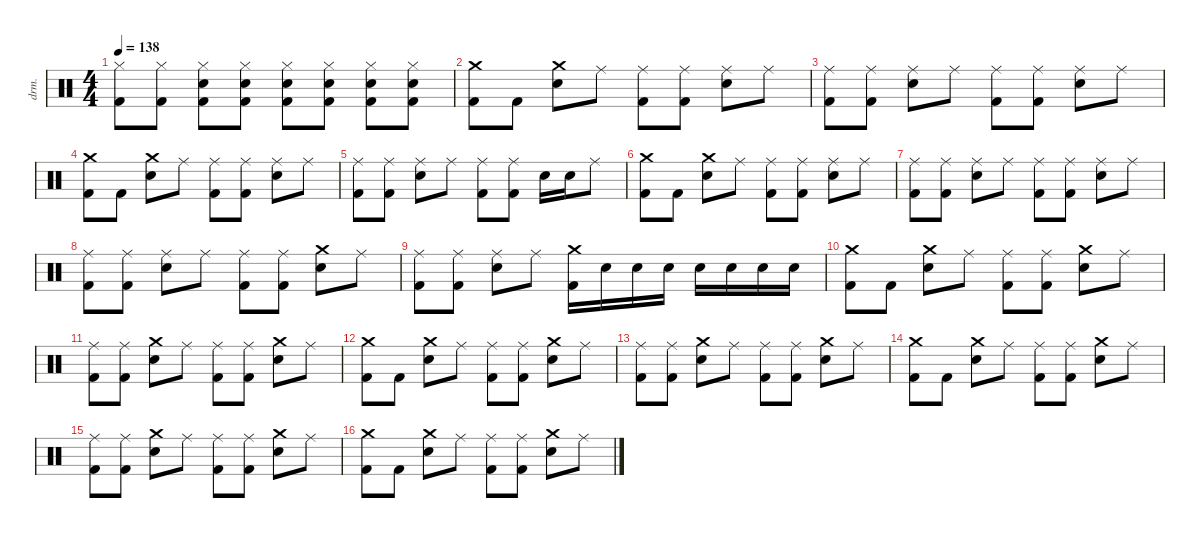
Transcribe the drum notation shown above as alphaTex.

\defaultSystemsLayout 4
\hideDynamics
\bracketExtendMode nobrackets
\otherSystemsTrackNameOrientation horizontal
\track ("Alex Van Halen " "drm.") {instrument percussion}
\staff {score}
\articulation defaults
\ts (4 4)
\tempo 138
\clef neutral
\ks c
("Kick (hit) 2" "Hi-Hat (closed)").8{dy mf beam Down} ("Kick (hit) 2" "Hi-Hat (closed)").8{dy f beam Down} ("Snare (hit) 2" "Kick (hit) 2" "Hi-Hat (closed)").8{beam Down} ("Snare (hit) 2" "Kick (hit) 2" "Hi-Hat (closed)").8{beam Down} ("Snare (hit) 2" "Kick (hit) 2" "Hi-Hat (closed)").8{dy ff beam Down} ("Snare (hit) 2" "Kick (hit) 2" "Hi-Hat (closed)").8{beam Down} ("Snare (hit) 2" "Kick (hit) 2" "Hi-Hat (closed)").8{beam Down} ("Snare (hit) 2" "Kick (hit) 2" "Hi-Hat (closed)").8{dy fff beam Down} |
("Kick (hit) 2" "Crash medium (hit)").8{dy ff beam Down} "Kick (hit) 2".8{dy f beam Down} ("Snare (hit) 2" "Crash medium (hit)").8{dy fff beam Down} "Ride (middle)".8{dy f beam Down} ("Kick (hit) 2" "Ride (middle)").8{dy ff beam Down} ("Kick (hit) 2" "Ride (middle)").8{dy f beam Down} ("Snare (hit) 2" "Ride (middle)").8{dy fff beam Down} "Ride (middle)".8{dy f beam Down} |
("Kick (hit) 2" "Ride (middle)").8{dy ff beam Down} ("Kick (hit) 2" "Ride (middle)").8{dy f beam Down} ("Snare (hit) 2" "Ride (middle)").8{dy fff beam Down} "Ride (middle)".8{dy f beam Down} ("Kick (hit) 2" "Ride (middle)").8{dy ff beam Down} ("Kick (hit) 2" "Ride (middle)").8{dy f beam Down} ("Snare (hit) 2" "Ride (middle)").8{dy fff beam Down} "Ride (middle)".8{dy f beam Down} |
("Kick (hit) 2" "Crash medium (hit)").8{dy ff beam Down} "Kick (hit) 2".8{dy f beam Down} ("Snare (hit) 2" "Crash medium (hit)").8{dy fff beam Down} "Ride (middle)".8{dy f beam Down} ("Kick (hit) 2" "Ride (middle)").8{dy ff beam Down} ("Kick (hit) 2" "Ride (middle)").8{dy f beam Down} ("Snare (hit) 2" "Ride (middle)").8{dy fff beam Down} "Ride (middle)".8{dy f beam Down} |
("Kick (hit) 2" "Ride (middle)").8{dy ff beam Down} ("Kick (hit) 2" "Ride (middle)").8{dy f beam Down} ("Snare (hit) 2" "Ride (middle)").8{dy fff beam Down} "Ride (middle)".8{dy f beam Down} ("Kick (hit) 2" "Ride (middle)").8{dy ff beam Down} ("Kick (hit) 2" "Ride (middle)").8{dy f beam Down} "Snare (hit) 2".16{dy fff beam Down} "Snare (hit) 2".16{dy f beam Down} "Ride (middle)".8{beam Down} |
("Kick (hit) 2" "Crash medium (hit)").8{dy ff beam Down} "Kick (hit) 2".8{dy f beam Down} ("Snare (hit) 2" "Crash medium (hit)").8{dy fff beam Down} "Ride (middle)".8{dy f beam Down} ("Kick (hit) 2" "Ride (middle)").8{dy ff beam Down} ("Kick (hit) 2" "Ride (middle)").8{dy f beam Down} ("Snare (hit) 2" "Ride (middle)").8{dy fff beam Down} "Ride (middle)".8{dy f beam Down} |
("Kick (hit) 2" "Ride (middle)").8{dy ff beam Down} ("Kick (hit) 2" "Ride (middle)").8{dy f beam Down} ("Snare (hit) 2" "Ride (middle)").8{dy fff beam Down} "Ride (middle)".8{dy f beam Down} ("Kick (hit) 2" "Ride (middle)").8{dy ff beam Down} ("Kick (hit) 2" "Ride (middle)").8{dy f beam Down} ("Snare (hit) 2" "Ride (middle)").8{dy fff beam Down} "Ride (middle)".8{dy f beam Down} |
("Kick (hit) 2" "Ride (middle)").8{dy ff beam Down} ("Kick (hit) 2" "Ride (middle)").8{dy f beam Down} ("Snare (hit) 2" "Ride (middle)").8{dy fff beam Down} "Ride (middle)".8{dy f beam Down} ("Kick (hit) 2" "Ride (middle)").8{dy ff beam Down} ("Ride (middle)" "Kick (hit) 2").8{dy f beam Down} ("Crash medium (hit)" "Snare (hit) 2").8{dy fff beam Down} "Ride (middle)".8{dy f beam Down} |
("Kick (hit) 2" "Ride (middle)").8{dy ff beam Down} ("Kick (hit) 2" "Ride (middle)").8{dy f beam Down} ("Snare (hit) 2" "Ride (middle)").8{dy fff beam Down} "Ride (middle)".8{dy f beam Down} ("Kick (hit) 2" "Crash medium (hit)").16{dy ff beam Down} "Snare (hit) 2".16{dy f beam Down} "Snare (hit) 2".16{beam Down} "Snare (hit) 2".16{beam Down} "Snare (hit) 2".16{dy ff beam Down} "Snare (hit) 2".16{beam Down} "Snare (hit) 2".16{beam Down} "Snare (hit) 2".16{dy fff beam Down} |
("Kick (hit) 2" "Crash medium (hit)").8{dy ff beam Down} "Kick (hit) 2".8{dy f beam Down} ("Snare (hit) 2" "Crash medium (hit)").8{dy fff beam Down} "Ride (middle)".8{dy f beam Down} ("Kick (hit) 2" "Ride (middle)").8{dy ff beam Down} ("Kick (hit) 2" "Ride (middle)").8{dy f beam Down} ("Snare (hit) 2" "Crash medium (hit)").8{dy fff beam Down} "Ride (middle)".8{dy f beam Down} |
("Kick (hit) 2" "Ride (middle)").8{dy ff beam Down} ("Kick (hit) 2" "Ride (middle)").8{dy f beam Down} ("Snare (hit) 2" "Crash medium (hit)").8{dy fff beam Down} "Ride (middle)".8{dy f beam Down} ("Kick (hit) 2" "Ride (middle)").8{dy ff beam Down} ("Kick (hit) 2" "Ride (middle)").8{dy f beam Down} ("Snare (hit) 2" "Crash medium (hit)").8{dy fff beam Down} "Ride (middle)".8{dy f beam Down} |
("Kick (hit) 2" "Crash medium (hit)").8{dy ff beam Down} "Kick (hit) 2".8{dy f beam Down} ("Snare (hit) 2" "Crash medium (hit)").8{dy fff beam Down} "Ride (middle)".8{dy f beam Down} ("Kick (hit) 2" "Ride (middle)").8{dy ff beam Down} ("Kick (hit) 2" "Ride (middle)").8{dy f beam Down} ("Snare (hit) 2" "Crash medium (hit)").8{dy fff beam Down} "Ride (middle)".8{dy f beam Down} |
("Kick (hit) 2" "Ride (middle)").8{dy ff beam Down} ("Kick (hit) 2" "Ride (middle)").8{dy f beam Down} ("Snare (hit) 2" "Crash medium (hit)").8{dy fff beam Down} "Ride (middle)".8{dy f beam Down} ("Kick (hit) 2" "Ride (middle)").8{dy ff beam Down} ("Kick (hit) 2" "Ride (middle)").8{dy f beam Down} ("Snare (hit) 2" "Crash medium (hit)").8{dy fff beam Down} "Ride (middle)".8{dy f beam Down} |
("Kick (hit) 2" "Crash medium (hit)").8{dy ff beam Down} "Kick (hit) 2".8{dy f beam Down} ("Snare (hit) 2" "Crash medium (hit)").8{dy fff beam Down} "Ride (middle)".8{dy f beam Down} ("Kick (hit) 2" "Ride (middle)").8{dy ff beam Down} ("Kick (hit) 2" "Ride (middle)").8{dy f beam Down} ("Snare (hit) 2" "Crash medium (hit)").8{dy fff beam Down} "Ride (middle)".8{dy f beam Down} |
("Kick (hit) 2" "Ride (middle)").8{dy ff beam Down} ("Kick (hit) 2" "Ride (middle)").8{dy f beam Down} ("Snare (hit) 2" "Crash medium (hit)").8{dy fff beam Down} "Ride (middle)".8{dy f beam Down} ("Kick (hit) 2" "Ride (middle)").8{dy ff beam Down} ("Kick (hit) 2" "Ride (middle)").8{dy f beam Down} ("Snare (hit) 2" "Crash medium (hit)").8{dy fff beam Down} "Ride (middle)".8{dy f beam Down} |
("Kick (hit) 2" "Crash medium (hit)").8{dy ff beam Down} "Kick (hit) 2".8{dy f beam Down} ("Snare (hit) 2" "Crash medium (hit)").8{dy fff beam Down} "Ride (middle)".8{dy f beam Down} ("Kick (hit) 2" "Ride (middle)").8{dy ff beam Down} ("Kick (hit) 2" "Ride (middle)").8{dy f beam Down} ("Snare (hit) 2" "Crash medium (hit)").8{dy fff beam Down} "Ride (middle)".8{dy f beam Down}
